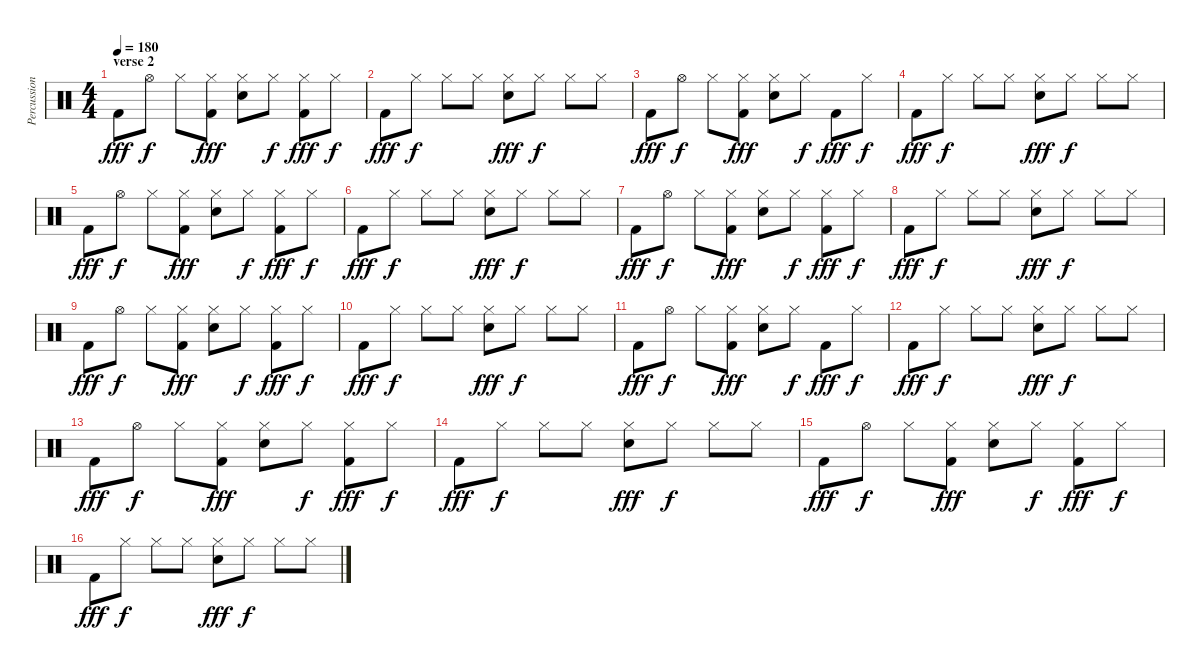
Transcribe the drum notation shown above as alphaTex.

\track ("Percussion" "Percussion") {instrument percussion}
\staff {score}
\articulation defaults
\ts (4 4)
\section ("" "verse 2")
\tempo 180
\clef neutral
\ks c "Kick (hit) 2".8{dy fff} "Hi-Hat (open)".8{dy f} "Hi-Hat (closed)".8
("Kick (hit) 2" "Hi-Hat (closed)").8{dy fff} ("Snare (hit) 2" "Hi-Hat (closed)").8 "Hi-Hat (closed)".8{dy f} ("Kick (hit) 2" "Hi-Hat (closed)").8{dy fff} "Hi-Hat (closed)".8{dy f} |
"Kick (hit) 2".8{dy fff} "Hi-Hat (closed)".8{dy f} "Hi-Hat (closed)".8 "Hi-Hat (closed)".8 ("Snare (hit) 2" "Hi-Hat (closed)").8{dy fff} "Hi-Hat (closed)".8{dy f} "Hi-Hat (closed)".8 "Hi-Hat (closed)".8 |
"Kick (hit) 2".8{dy fff} "Hi-Hat (open)".8{dy f} "Hi-Hat (closed)".8 ("Kick (hit) 2" "Hi-Hat (closed)").8{dy fff} ("Snare (hit) 2" "Hi-Hat (closed)").8 "Hi-Hat (closed)".8{dy f} "Kick (hit) 2".8{dy fff} "Hi-Hat (closed)".8{dy f} |
"Kick (hit) 2".8{dy fff} "Hi-Hat (closed)".8{dy f} "Hi-Hat (closed)".8 "Hi-Hat (closed)".8 ("Snare (hit) 2" "Hi-Hat (closed)").8{dy fff} "Hi-Hat (closed)".8{dy f} "Hi-Hat (closed)".8 "Hi-Hat (closed)".8 |
"Kick (hit) 2".8{dy fff} "Hi-Hat (open)".8{dy f} "Hi-Hat (closed)".8 ("Kick (hit) 2" "Hi-Hat (closed)").8{dy fff} ("Snare (hit) 2" "Hi-Hat (closed)").8 "Hi-Hat (closed)".8{dy f} ("Kick (hit) 2" "Hi-Hat (closed)").8{dy fff} "Hi-Hat (closed)".8{dy f} |
"Kick (hit) 2".8{dy fff} "Hi-Hat (closed)".8{dy f} "Hi-Hat (closed)".8 "Hi-Hat (closed)".8 ("Snare (hit) 2" "Hi-Hat (closed)").8{dy fff} "Hi-Hat (closed)".8{dy f} "Hi-Hat (closed)".8 "Hi-Hat (closed)".8 |
"Kick (hit) 2".8{dy fff} "Hi-Hat (open)".8{dy f} "Hi-Hat (closed)".8 ("Kick (hit) 2" "Hi-Hat (closed)").8{dy fff} ("Snare (hit) 2" "Hi-Hat (closed)").8 "Hi-Hat (closed)".8{dy f} ("Kick (hit) 2" "Hi-Hat (closed)").8{dy fff} "Hi-Hat (closed)".8{dy f} |
"Kick (hit) 2".8{dy fff} "Hi-Hat (closed)".8{dy f} "Hi-Hat (closed)".8 "Hi-Hat (closed)".8 ("Snare (hit) 2" "Hi-Hat (closed)").8{dy fff} "Hi-Hat (closed)".8{dy f} "Hi-Hat (closed)".8 "Hi-Hat (closed)".8 |
"Kick (hit) 2".8{dy fff} "Hi-Hat (open)".8{dy f} "Hi-Hat (closed)".8 ("Kick (hit) 2" "Hi-Hat (closed)").8{dy fff} ("Snare (hit) 2" "Hi-Hat (closed)").8 "Hi-Hat (closed)".8{dy f} ("Kick (hit) 2" "Hi-Hat (closed)").8{dy fff} "Hi-Hat (closed)".8{dy f} |
"Kick (hit) 2".8{dy fff} "Hi-Hat (closed)".8{dy f} "Hi-Hat (closed)".8 "Hi-Hat (closed)".8 ("Snare (hit) 2" "Hi-Hat (closed)").8{dy fff} "Hi-Hat (closed)".8{dy f} "Hi-Hat (closed)".8 "Hi-Hat (closed)".8 |
"Kick (hit) 2".8{dy fff} "Hi-Hat (open)".8{dy f} "Hi-Hat (closed)".8 ("Kick (hit) 2" "Hi-Hat (closed)").8{dy fff} ("Snare (hit) 2" "Hi-Hat (closed)").8 "Hi-Hat (closed)".8{dy f} "Kick (hit) 2".8{dy fff} "Hi-Hat (closed)".8{dy f} |
"Kick (hit) 2".8{dy fff} "Hi-Hat (closed)".8{dy f} "Hi-Hat (closed)".8 "Hi-Hat (closed)".8 ("Snare (hit) 2" "Hi-Hat (closed)").8{dy fff} "Hi-Hat (closed)".8{dy f} "Hi-Hat (closed)".8 "Hi-Hat (closed)".8 |
"Kick (hit) 2".8{dy fff} "Hi-Hat (open)".8{dy f} "Hi-Hat (closed)".8 ("Kick (hit) 2" "Hi-Hat (closed)").8{dy fff} ("Snare (hit) 2" "Hi-Hat (closed)").8 "Hi-Hat (closed)".8{dy f} ("Kick (hit) 2" "Hi-Hat (closed)").8{dy fff} "Hi-Hat (closed)".8{dy f} |
"Kick (hit) 2".8{dy fff} "Hi-Hat (closed)".8{dy f} "Hi-Hat (closed)".8 "Hi-Hat (closed)".8 ("Snare (hit) 2" "Hi-Hat (closed)").8{dy fff} "Hi-Hat (closed)".8{dy f} "Hi-Hat (closed)".8 "Hi-Hat (closed)".8 |
"Kick (hit) 2".8{dy fff} "Hi-Hat (open)".8{dy f} "Hi-Hat (closed)".8 ("Kick (hit) 2" "Hi-Hat (closed)").8{dy fff} ("Snare (hit) 2" "Hi-Hat (closed)").8 "Hi-Hat (closed)".8{dy f} ("Kick (hit) 2" "Hi-Hat (closed)").8{dy fff} "Hi-Hat (closed)".8{dy f} |
"Kick (hit) 2".8{dy fff} "Hi-Hat (closed)".8{dy f} "Hi-Hat (closed)".8 "Hi-Hat (closed)".8 ("Snare (hit) 2" "Hi-Hat (closed)").8{dy fff} "Hi-Hat (closed)".8{dy f} "Hi-Hat (closed)".8 "Hi-Hat (closed)".8
